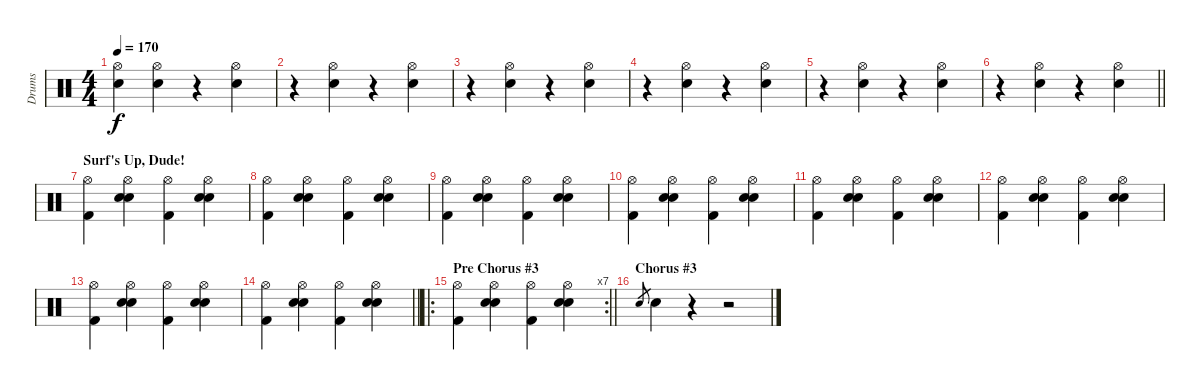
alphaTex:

\track ("Drums" "Drums") {instrument percussion}
\staff {score}
\articulation defaults
\ts (4 4)
\tempo 170
\clef neutral
\ks c
("Hi-Hat (open)" "Electric Snare (hit)").4{dy f} ("Hi-Hat (open)" "Hand Clap (hit)").4 r.4 ("Hi-Hat (open)" "Hand Clap (hit)").4 |
r.4 ("Hi-Hat (open)" "Hand Clap (hit)").4 r.4 ("Hi-Hat (open)" "Hand Clap (hit)").4 |
r.4 ("Hi-Hat (open)" "Hand Clap (hit)").4 r.4 ("Hi-Hat (open)" "Hand Clap (hit)").4 |
r.4 ("Hi-Hat (open)" "Hand Clap (hit)").4 r.4 ("Hi-Hat (open)" "Hand Clap (hit)").4 |
r.4 ("Hi-Hat (open)" "Hand Clap (hit)").4 r.4 ("Hi-Hat (open)" "Hand Clap (hit)").4 |
\barLineRight lightlight
r.4 ("Hi-Hat (open)" "Hand Clap (hit)").4 r.4 ("Hi-Hat (open)" "Hand Clap (hit)").4 |
\section ("" "Surf's Up, Dude!")
("Hi-Hat (open)" "Kick (hit) 2").4 ("Hi-Hat (open)" "Electric Snare (hit)" "Hand Clap (hit)").4 ("Hi-Hat (open)" "Kick (hit) 2").4 ("Hi-Hat (open)" "Electric Snare (hit)" "Hand Clap (hit)").4 |
("Hi-Hat (open)" "Kick (hit) 2").4 ("Hi-Hat (open)" "Electric Snare (hit)" "Hand Clap (hit)").4 ("Hi-Hat (open)" "Kick (hit) 2").4 ("Hi-Hat (open)" "Electric Snare (hit)" "Hand Clap (hit)").4 |
("Hi-Hat (open)" "Kick (hit) 2").4 ("Hi-Hat (open)" "Electric Snare (hit)" "Hand Clap (hit)").4 ("Hi-Hat (open)" "Kick (hit) 2").4 ("Hi-Hat (open)" "Electric Snare (hit)" "Hand Clap (hit)").4 |
("Hi-Hat (open)" "Kick (hit) 2").4 ("Hi-Hat (open)" "Electric Snare (hit)" "Hand Clap (hit)").4 ("Hi-Hat (open)" "Kick (hit) 2").4 ("Hi-Hat (open)" "Electric Snare (hit)" "Hand Clap (hit)").4 |
("Hi-Hat (open)" "Kick (hit) 2").4 ("Hi-Hat (open)" "Electric Snare (hit)" "Hand Clap (hit)").4 ("Hi-Hat (open)" "Kick (hit) 2").4 ("Hi-Hat (open)" "Electric Snare (hit)" "Hand Clap (hit)").4 |
("Hi-Hat (open)" "Kick (hit) 2").4 ("Hi-Hat (open)" "Electric Snare (hit)" "Hand Clap (hit)").4 ("Hi-Hat (open)" "Kick (hit) 2").4 ("Hi-Hat (open)" "Electric Snare (hit)" "Hand Clap (hit)").4 |
("Hi-Hat (open)" "Kick (hit) 2").4 ("Hi-Hat (open)" "Electric Snare (hit)" "Hand Clap (hit)").4 ("Hi-Hat (open)" "Kick (hit) 2").4 ("Hi-Hat (open)" "Electric Snare (hit)" "Hand Clap (hit)").4 |
\barLineRight lightlight
("Hi-Hat (open)" "Kick (hit) 2").4 ("Hi-Hat (open)" "Electric Snare (hit)" "Hand Clap (hit)").4 ("Hi-Hat (open)" "Kick (hit) 2").4 ("Hi-Hat (open)" "Electric Snare (hit)" "Hand Clap (hit)").4 |
\ro
\rc 7
\section ("" "Pre Chorus #3")
\barLineRight lightlight
("Hi-Hat (open)" "Kick (hit) 2").4 ("Hi-Hat (open)" "Electric Snare (hit)" "Hand Clap (hit)").4 ("Hi-Hat (open)" "Kick (hit) 2").4 ("Hi-Hat (open)" "Electric Snare (hit)" "Hand Clap (hit)").4 |
\section ("" "Chorus #3")
"Electric Snare (hit)".8{gr} "Electric Snare (hit)".4 r.4 r.2
